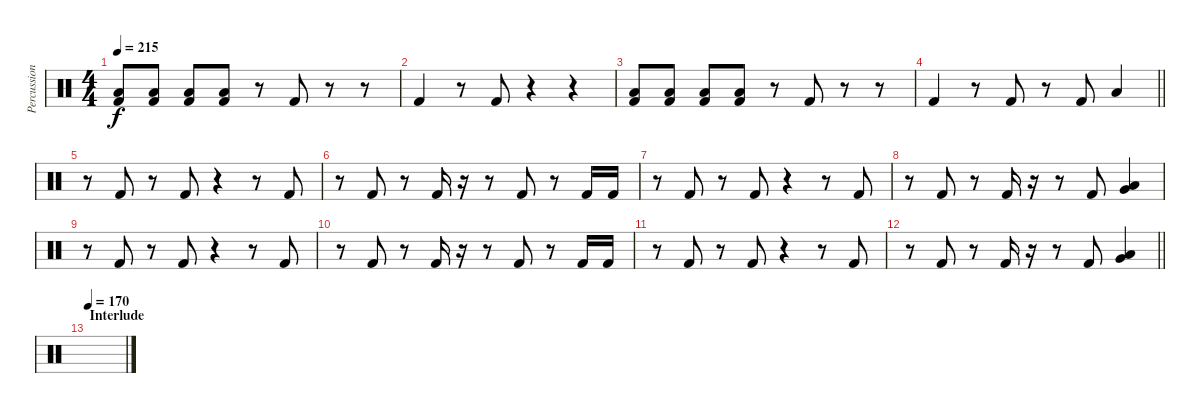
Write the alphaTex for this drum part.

\track ("Percussion" "Percussion") {instrument percussion}
\staff {score}
\articulation defaults
\ts (4 4)
\tempo 215
\clef neutral
\ks c
("Low Floor Tom (hit)" "Kick (hit) 2").8{dy f} ("Low Floor Tom (hit)" "Kick (hit) 2").8 ("Low Floor Tom (hit)" "Kick (hit) 2").8 ("Low Floor Tom (hit)" "Kick (hit) 2").8 r.8 "Kick (hit) 2".8 r.8 r.8 |
"Kick (hit) 2".4 r.8 "Kick (hit) 2".8 r.4 r.4 |
("Low Floor Tom (hit)" "Kick (hit) 2").8 ("Low Floor Tom (hit)" "Kick (hit) 2").8 ("Low Floor Tom (hit)" "Kick (hit) 2").8 ("Low Floor Tom (hit)" "Kick (hit) 2").8 r.8 "Kick (hit) 2".8 r.8 r.8 |
\barLineRight lightlight "Kick (hit) 2".4
r.8 "Kick (hit) 2".8 r.8 "Kick (hit) 2".8 "Low Tom (hit)".4 |
r.8 "Kick (hit) 2".8 r.8 "Kick (hit) 2".8 r.4 r.8 "Kick (hit) 2".8 |
r.8 "Kick (hit) 2".8 r.8 "Kick (hit) 2".16 r.16 r.8 "Kick (hit) 2".8 r.8 "Kick (hit) 2".16 "Kick (hit) 2".16 |
r.8 "Kick (hit) 2".8 r.8 "Kick (hit) 2".8 r.4 r.8 "Kick (hit) 2".8 |
r.8 "Kick (hit) 2".8 r.8 "Kick (hit) 2".16 r.16 r.8 "Kick (hit) 2".8 ("Very Low Tom (hit)" "Low Tom (hit)").4 |
r.8 "Kick (hit) 2".8 r.8 "Kick (hit) 2".8 r.4 r.8 "Kick (hit) 2".8 |
r.8 "Kick (hit) 2".8 r.8 "Kick (hit) 2".16 r.16 r.8 "Kick (hit) 2".8 r.8 "Kick (hit) 2".16 "Kick (hit) 2".16 |
r.8 "Kick (hit) 2".8 r.8 "Kick (hit) 2".8 r.4 r.8 "Kick (hit) 2".8 |
\barLineRight lightlight
r.8 "Kick (hit) 2".8 r.8 "Kick (hit) 2".16 r.16 r.8 "Kick (hit) 2".8 ("Very Low Tom (hit)" "Low Tom (hit)").4 |
\section ("" "Interlude")
\tempo 170
